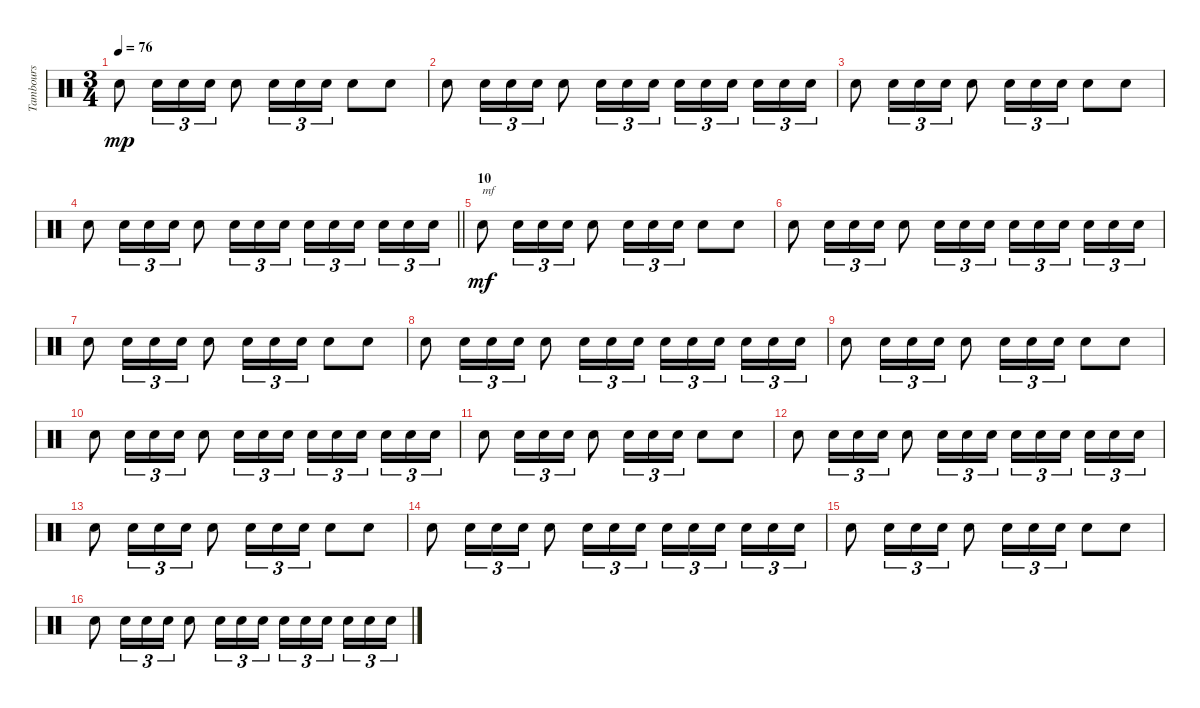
\track ("Tambours" "Tambours") {instrument percussion}
\staff {score}
\articulation defaults
\ts (3 4)
\tempo 76
\clef neutral
\ks c "Snare (hit) 2".8{dy mp} "Snare (hit) 2".16{tu (3 2)} "Snare (hit) 2".16{tu (3 2)} "Snare (hit) 2".16{tu (3 2)} "Snare (hit) 2".8 "Snare (hit) 2".16{tu (3 2)} "Snare (hit) 2".16{tu (3 2)} "Snare (hit) 2".16{tu (3 2)} "Snare (hit) 2".8 "Snare (hit) 2".8
|
"Snare (hit) 2".8 "Snare (hit) 2".16{tu (3 2)} "Snare (hit) 2".16{tu (3 2)} "Snare (hit) 2".16{tu (3 2)} "Snare (hit) 2".8 "Snare (hit) 2".16{tu (3 2)} "Snare (hit) 2".16{tu (3 2)} "Snare (hit) 2".16{tu (3 2)} "Snare (hit) 2".16{tu (3 2)} "Snare (hit) 2".16{tu (3 2)} "Snare (hit) 2".16{tu (3 2) beam splitsecondary} "Snare (hit) 2".16{tu (3 2)} "Snare (hit) 2".16{tu (3 2)} "Snare (hit) 2".16{tu (3 2)} |
"Snare (hit) 2".8 "Snare (hit) 2".16{tu (3 2)} "Snare (hit) 2".16{tu (3 2)} "Snare (hit) 2".16{tu (3 2)} "Snare (hit) 2".8 "Snare (hit) 2".16{tu (3 2)} "Snare (hit) 2".16{tu (3 2)} "Snare (hit) 2".16{tu (3 2)} "Snare (hit) 2".8 "Snare (hit) 2".8 |
\barLineRight lightlight "Snare (hit) 2".8 "Snare (hit) 2".16{tu (3 2)} "Snare (hit) 2".16{tu (3 2)} "Snare (hit) 2".16{tu (3 2)} "Snare (hit) 2".8 "Snare (hit) 2".16{tu (3 2)} "Snare (hit) 2".16{tu (3 2)} "Snare (hit) 2".16{tu (3 2)} "Snare (hit) 2".16{tu (3 2)} "Snare (hit) 2".16{tu (3 2)} "Snare (hit) 2".16{tu (3 2) beam splitsecondary} "Snare (hit) 2".16{tu (3 2)} "Snare (hit) 2".16{tu (3 2)} "Snare (hit) 2".16{tu (3 2)}
|
\section ("" "10")
"Snare (hit) 2".8{txt "mf" dy mf} "Snare (hit) 2".16{tu (3 2)} "Snare (hit) 2".16{tu (3 2)} "Snare (hit) 2".16{tu (3 2)} "Snare (hit) 2".8 "Snare (hit) 2".16{tu (3 2)} "Snare (hit) 2".16{tu (3 2)} "Snare (hit) 2".16{tu (3 2)} "Snare (hit) 2".8 "Snare (hit) 2".8 |
"Snare (hit) 2".8 "Snare (hit) 2".16{tu (3 2)} "Snare (hit) 2".16{tu (3 2)} "Snare (hit) 2".16{tu (3 2)} "Snare (hit) 2".8 "Snare (hit) 2".16{tu (3 2)} "Snare (hit) 2".16{tu (3 2)} "Snare (hit) 2".16{tu (3 2)} "Snare (hit) 2".16{tu (3 2)} "Snare (hit) 2".16{tu (3 2)} "Snare (hit) 2".16{tu (3 2) beam splitsecondary} "Snare (hit) 2".16{tu (3 2)} "Snare (hit) 2".16{tu (3 2)} "Snare (hit) 2".16{tu (3 2)} |
"Snare (hit) 2".8 "Snare (hit) 2".16{tu (3 2)} "Snare (hit) 2".16{tu (3 2)} "Snare (hit) 2".16{tu (3 2)} "Snare (hit) 2".8 "Snare (hit) 2".16{tu (3 2)} "Snare (hit) 2".16{tu (3 2)} "Snare (hit) 2".16{tu (3 2)} "Snare (hit) 2".8 "Snare (hit) 2".8 |
"Snare (hit) 2".8 "Snare (hit) 2".16{tu (3 2)} "Snare (hit) 2".16{tu (3 2)} "Snare (hit) 2".16{tu (3 2)} "Snare (hit) 2".8 "Snare (hit) 2".16{tu (3 2)} "Snare (hit) 2".16{tu (3 2)} "Snare (hit) 2".16{tu (3 2)} "Snare (hit) 2".16{tu (3 2)} "Snare (hit) 2".16{tu (3 2)} "Snare (hit) 2".16{tu (3 2) beam splitsecondary} "Snare (hit) 2".16{tu (3 2)} "Snare (hit) 2".16{tu (3 2)} "Snare (hit) 2".16{tu (3 2)} |
"Snare (hit) 2".8 "Snare (hit) 2".16{tu (3 2)} "Snare (hit) 2".16{tu (3 2)} "Snare (hit) 2".16{tu (3 2)} "Snare (hit) 2".8 "Snare (hit) 2".16{tu (3 2)} "Snare (hit) 2".16{tu (3 2)} "Snare (hit) 2".16{tu (3 2)} "Snare (hit) 2".8 "Snare (hit) 2".8 |
"Snare (hit) 2".8 "Snare (hit) 2".16{tu (3 2)} "Snare (hit) 2".16{tu (3 2)} "Snare (hit) 2".16{tu (3 2)} "Snare (hit) 2".8 "Snare (hit) 2".16{tu (3 2)} "Snare (hit) 2".16{tu (3 2)} "Snare (hit) 2".16{tu (3 2)} "Snare (hit) 2".16{tu (3 2)} "Snare (hit) 2".16{tu (3 2)} "Snare (hit) 2".16{tu (3 2) beam splitsecondary} "Snare (hit) 2".16{tu (3 2)} "Snare (hit) 2".16{tu (3 2)} "Snare (hit) 2".16{tu (3 2)} |
"Snare (hit) 2".8 "Snare (hit) 2".16{tu (3 2)} "Snare (hit) 2".16{tu (3 2)} "Snare (hit) 2".16{tu (3 2)} "Snare (hit) 2".8 "Snare (hit) 2".16{tu (3 2)} "Snare (hit) 2".16{tu (3 2)} "Snare (hit) 2".16{tu (3 2)} "Snare (hit) 2".8 "Snare (hit) 2".8 |
"Snare (hit) 2".8 "Snare (hit) 2".16{tu (3 2)} "Snare (hit) 2".16{tu (3 2)} "Snare (hit) 2".16{tu (3 2)} "Snare (hit) 2".8 "Snare (hit) 2".16{tu (3 2)} "Snare (hit) 2".16{tu (3 2)} "Snare (hit) 2".16{tu (3 2)} "Snare (hit) 2".16{tu (3 2)} "Snare (hit) 2".16{tu (3 2)} "Snare (hit) 2".16{tu (3 2) beam splitsecondary} "Snare (hit) 2".16{tu (3 2)} "Snare (hit) 2".16{tu (3 2)} "Snare (hit) 2".16{tu (3 2)} |
"Snare (hit) 2".8 "Snare (hit) 2".16{tu (3 2)} "Snare (hit) 2".16{tu (3 2)} "Snare (hit) 2".16{tu (3 2)} "Snare (hit) 2".8 "Snare (hit) 2".16{tu (3 2)} "Snare (hit) 2".16{tu (3 2)} "Snare (hit) 2".16{tu (3 2)} "Snare (hit) 2".8 "Snare (hit) 2".8 |
"Snare (hit) 2".8 "Snare (hit) 2".16{tu (3 2)} "Snare (hit) 2".16{tu (3 2)} "Snare (hit) 2".16{tu (3 2)} "Snare (hit) 2".8 "Snare (hit) 2".16{tu (3 2)} "Snare (hit) 2".16{tu (3 2)} "Snare (hit) 2".16{tu (3 2)} "Snare (hit) 2".16{tu (3 2)} "Snare (hit) 2".16{tu (3 2)} "Snare (hit) 2".16{tu (3 2) beam splitsecondary} "Snare (hit) 2".16{tu (3 2)} "Snare (hit) 2".16{tu (3 2)} "Snare (hit) 2".16{tu (3 2)} |
"Snare (hit) 2".8 "Snare (hit) 2".16{tu (3 2)} "Snare (hit) 2".16{tu (3 2)} "Snare (hit) 2".16{tu (3 2)} "Snare (hit) 2".8 "Snare (hit) 2".16{tu (3 2)} "Snare (hit) 2".16{tu (3 2)} "Snare (hit) 2".16{tu (3 2)} "Snare (hit) 2".8 "Snare (hit) 2".8 |
"Snare (hit) 2".8 "Snare (hit) 2".16{tu (3 2)} "Snare (hit) 2".16{tu (3 2)} "Snare (hit) 2".16{tu (3 2)} "Snare (hit) 2".8 "Snare (hit) 2".16{tu (3 2)} "Snare (hit) 2".16{tu (3 2)} "Snare (hit) 2".16{tu (3 2)} "Snare (hit) 2".16{tu (3 2)} "Snare (hit) 2".16{tu (3 2)} "Snare (hit) 2".16{tu (3 2) beam splitsecondary} "Snare (hit) 2".16{tu (3 2)} "Snare (hit) 2".16{tu (3 2)} "Snare (hit) 2".16{tu (3 2)}
